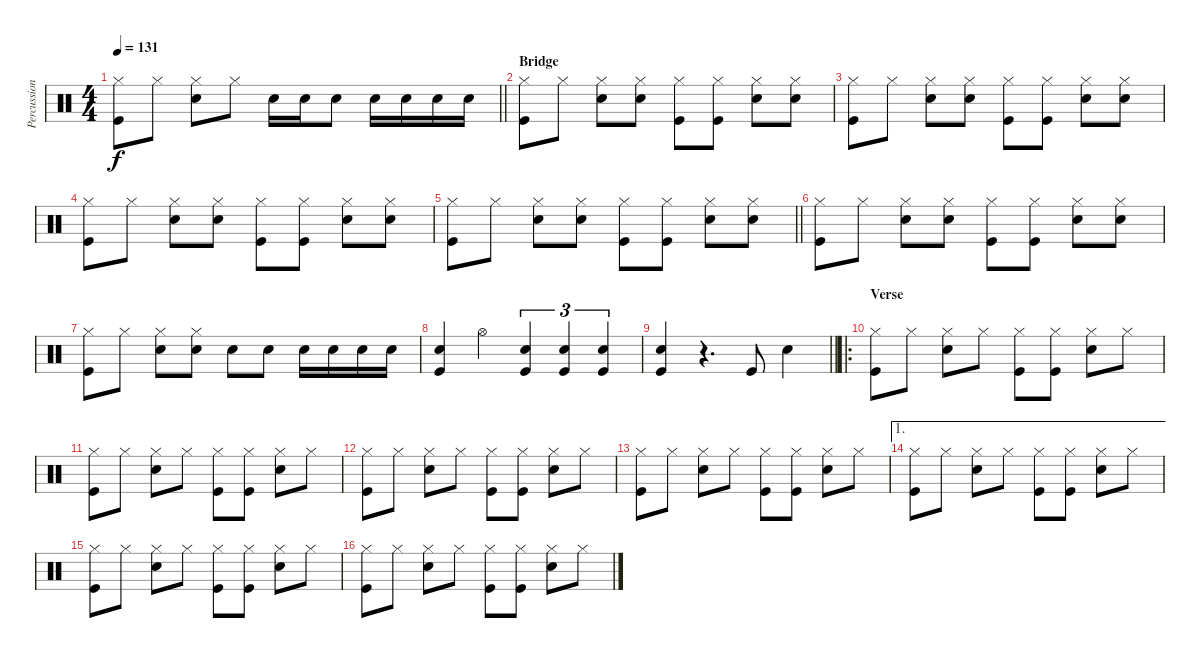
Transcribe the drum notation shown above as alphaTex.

\track ("Percussion" "Percussion") {instrument percussion}
\staff {score}
\articulation defaults
\ts (4 4)
\tempo 131
\clef neutral
\barLineRight lightlight
\ks c
("Hi-Hat (closed)" "Kick (hit)").8{dy f} "Hi-Hat (closed)".8 ("Hi-Hat (closed)" "Snare (hit) 2").8 "Hi-Hat (closed)".8 "Snare (hit) 2".16 "Snare (hit) 2".16 "Snare (hit) 2".8 "Snare (hit) 2".16 "Snare (hit) 2".16 "Snare (hit) 2".16 "Snare (hit) 2".16 |
\section ("" "Bridge")
("Hi-Hat (closed)" "Kick (hit)").8 "Hi-Hat (closed)".8 ("Hi-Hat (closed)" "Snare (hit) 2").8 ("Hi-Hat (closed)" "Snare (hit) 2").8 ("Hi-Hat (closed)" "Kick (hit)").8 ("Hi-Hat (closed)" "Kick (hit)").8 ("Hi-Hat (closed)" "Snare (hit) 2").8 ("Hi-Hat (closed)" "Snare (hit) 2").8 |
("Hi-Hat (closed)" "Kick (hit)").8 "Hi-Hat (closed)".8 ("Hi-Hat (closed)" "Snare (hit) 2").8 ("Hi-Hat (closed)" "Snare (hit) 2").8 ("Hi-Hat (closed)" "Kick (hit)").8 ("Hi-Hat (closed)" "Kick (hit)").8 ("Hi-Hat (closed)" "Snare (hit) 2").8 ("Hi-Hat (closed)" "Snare (hit) 2").8 |
("Hi-Hat (closed)" "Kick (hit)").8 "Hi-Hat (closed)".8 ("Hi-Hat (closed)" "Snare (hit) 2").8 ("Hi-Hat (closed)" "Snare (hit) 2").8 ("Hi-Hat (closed)" "Kick (hit)").8 ("Hi-Hat (closed)" "Kick (hit)").8 ("Hi-Hat (closed)" "Snare (hit) 2").8 ("Hi-Hat (closed)" "Snare (hit) 2").8 |
\barLineRight lightlight
("Hi-Hat (closed)" "Kick (hit)").8 "Hi-Hat (closed)".8 ("Hi-Hat (closed)" "Snare (hit) 2").8 ("Hi-Hat (closed)" "Snare (hit) 2").8 ("Hi-Hat (closed)" "Kick (hit)").8 ("Hi-Hat (closed)" "Kick (hit)").8 ("Hi-Hat (closed)" "Snare (hit) 2").8 ("Hi-Hat (closed)" "Snare (hit) 2").8 |
("Hi-Hat (closed)" "Kick (hit)").8 "Hi-Hat (closed)".8 ("Hi-Hat (closed)" "Snare (hit) 2").8 ("Hi-Hat (closed)" "Snare (hit) 2").8 ("Hi-Hat (closed)" "Kick (hit)").8 ("Hi-Hat (closed)" "Kick (hit)").8 ("Hi-Hat (closed)" "Snare (hit) 2").8 ("Hi-Hat (closed)" "Snare (hit) 2").8 |
("Hi-Hat (closed)" "Kick (hit)").8 "Hi-Hat (closed)".8 ("Hi-Hat (closed)" "Snare (hit) 2").8 ("Hi-Hat (closed)" "Snare (hit) 2").8 "Snare (hit) 2".8 "Snare (hit) 2".8 "Snare (hit) 2".16 "Snare (hit) 2".16 "Snare (hit) 2".16 "Snare (hit) 2".16 |
("Kick (hit)" "Snare (hit) 2").4 "Hi-Hat (open)".4 ("Kick (hit)" "Snare (hit) 2").4{tu (3 2)} ("Kick (hit)" "Snare (hit) 2").4{tu (3 2)} ("Kick (hit)" "Snare (hit) 2").4{tu (3 2)} |
\barLineRight lightlight
("Kick (hit)" "Snare (hit) 2").4 r.4{d} "Kick (hit)".8 "Snare (hit) 2".4 |
\ro
\section ("" "Verse")
("Hi-Hat (closed)" "Kick (hit)").8 "Hi-Hat (closed)".8 ("Hi-Hat (closed)" "Snare (hit) 2").8 "Hi-Hat (closed)".8 ("Hi-Hat (closed)" "Kick (hit)").8 ("Hi-Hat (closed)" "Kick (hit)").8 ("Hi-Hat (closed)" "Snare (hit) 2").8 "Hi-Hat (closed)".8 |
("Hi-Hat (closed)" "Kick (hit)").8 "Hi-Hat (closed)".8 ("Hi-Hat (closed)" "Snare (hit) 2").8 "Hi-Hat (closed)".8 ("Hi-Hat (closed)" "Kick (hit)").8 ("Hi-Hat (closed)" "Kick (hit)").8 ("Hi-Hat (closed)" "Snare (hit) 2").8 "Hi-Hat (closed)".8 |
("Hi-Hat (closed)" "Kick (hit)").8 "Hi-Hat (closed)".8 ("Hi-Hat (closed)" "Snare (hit) 2").8 "Hi-Hat (closed)".8 ("Hi-Hat (closed)" "Kick (hit)").8 ("Hi-Hat (closed)" "Kick (hit)").8 ("Hi-Hat (closed)" "Snare (hit) 2").8 "Hi-Hat (closed)".8 |
("Hi-Hat (closed)" "Kick (hit)").8 "Hi-Hat (closed)".8 ("Hi-Hat (closed)" "Snare (hit) 2").8 "Hi-Hat (closed)".8 ("Hi-Hat (closed)" "Kick (hit)").8 ("Hi-Hat (closed)" "Kick (hit)").8 ("Hi-Hat (closed)" "Snare (hit) 2").8 "Hi-Hat (closed)".8 |
\ae 1
("Hi-Hat (closed)" "Kick (hit)").8 "Hi-Hat (closed)".8 ("Hi-Hat (closed)" "Snare (hit) 2").8 "Hi-Hat (closed)".8 ("Hi-Hat (closed)" "Kick (hit)").8 ("Hi-Hat (closed)" "Kick (hit)").8 ("Hi-Hat (closed)" "Snare (hit) 2").8 "Hi-Hat (closed)".8 |
("Hi-Hat (closed)" "Kick (hit)").8 "Hi-Hat (closed)".8 ("Hi-Hat (closed)" "Snare (hit) 2").8 "Hi-Hat (closed)".8 ("Hi-Hat (closed)" "Kick (hit)").8 ("Hi-Hat (closed)" "Kick (hit)").8 ("Hi-Hat (closed)" "Snare (hit) 2").8 "Hi-Hat (closed)".8 |
("Hi-Hat (closed)" "Kick (hit)").8 "Hi-Hat (closed)".8 ("Hi-Hat (closed)" "Snare (hit) 2").8 "Hi-Hat (closed)".8 ("Hi-Hat (closed)" "Kick (hit)").8 ("Hi-Hat (closed)" "Kick (hit)").8 ("Hi-Hat (closed)" "Snare (hit) 2").8 "Hi-Hat (closed)".8
